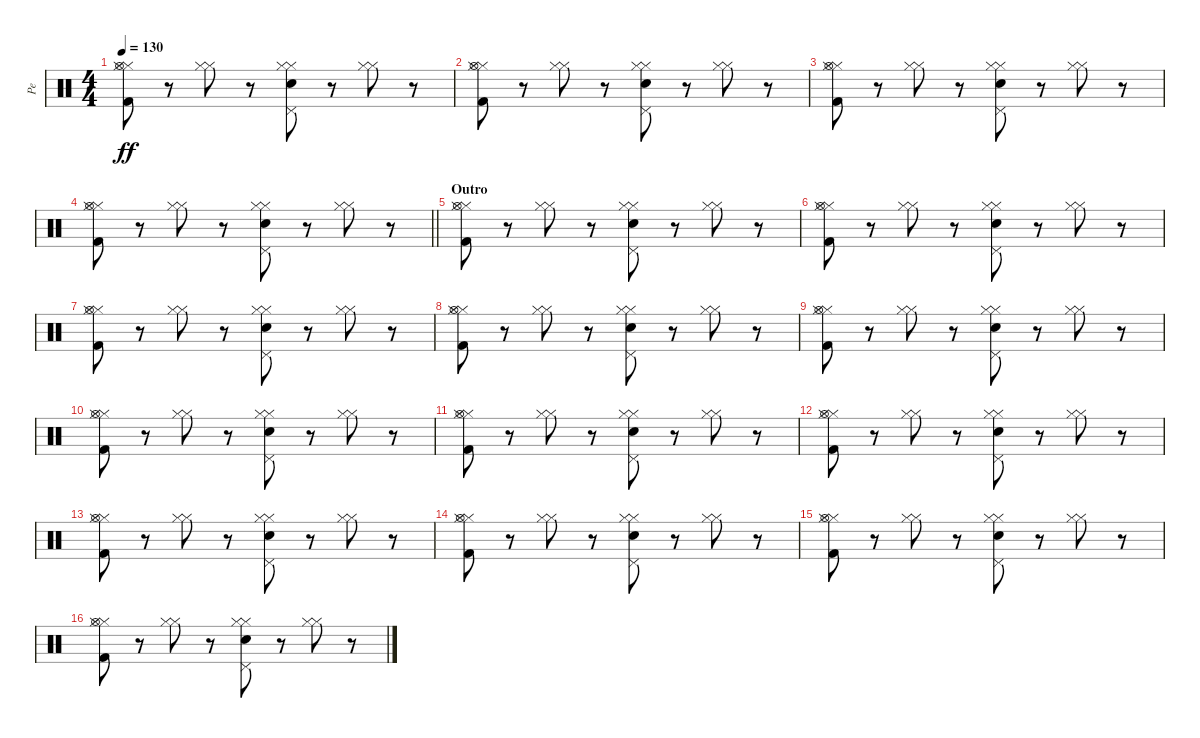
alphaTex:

\track ("Pe" "Pe") {instrument percussion}
\staff {score}
\articulation defaults
\ts (4 4)
\tempo 130
\clef neutral
\ks c
("Hi-Hat (closed)" "Hi-Hat (closed)" "Hi-Hat (open)" "Kick (hit) 2").8{dy ff} r.8 ("Hi-Hat (closed)" "Hi-Hat (closed)").8 r.8 ("Hi-Hat (closed)" "Hi-Hat (closed)" "Pedal Hi-Hat (hit)" "Electric Snare (hit)").8 r.8 ("Hi-Hat (closed)" "Hi-Hat (closed)").8 r.8 |
("Hi-Hat (closed)" "Hi-Hat (closed)" "Hi-Hat (open)" "Kick (hit) 2").8 r.8 ("Hi-Hat (closed)" "Hi-Hat (closed)").8 r.8 ("Hi-Hat (closed)" "Hi-Hat (closed)" "Pedal Hi-Hat (hit)" "Electric Snare (hit)").8 r.8 ("Hi-Hat (closed)" "Hi-Hat (closed)").8 r.8 |
("Hi-Hat (closed)" "Hi-Hat (closed)" "Hi-Hat (open)" "Kick (hit) 2").8 r.8 ("Hi-Hat (closed)" "Hi-Hat (closed)").8 r.8 ("Hi-Hat (closed)" "Hi-Hat (closed)" "Pedal Hi-Hat (hit)" "Electric Snare (hit)").8 r.8 ("Hi-Hat (closed)" "Hi-Hat (closed)").8 r.8 |
\barLineRight lightlight
("Hi-Hat (closed)" "Hi-Hat (closed)" "Hi-Hat (open)" "Kick (hit) 2").8 r.8 ("Hi-Hat (closed)" "Hi-Hat (closed)").8 r.8 ("Hi-Hat (closed)" "Hi-Hat (closed)" "Pedal Hi-Hat (hit)" "Electric Snare (hit)").8 r.8 ("Hi-Hat (closed)" "Hi-Hat (closed)").8 r.8 |
\section ("" "Outro")
("Hi-Hat (closed)" "Hi-Hat (closed)" "Hi-Hat (open)" "Kick (hit) 2").8 r.8 ("Hi-Hat (closed)" "Hi-Hat (closed)").8 r.8 ("Hi-Hat (closed)" "Hi-Hat (closed)" "Pedal Hi-Hat (hit)" "Electric Snare (hit)").8 r.8 ("Hi-Hat (closed)" "Hi-Hat (closed)").8 r.8 |
("Hi-Hat (closed)" "Hi-Hat (closed)" "Hi-Hat (open)" "Kick (hit) 2").8 r.8 ("Hi-Hat (closed)" "Hi-Hat (closed)").8 r.8 ("Hi-Hat (closed)" "Hi-Hat (closed)" "Pedal Hi-Hat (hit)" "Electric Snare (hit)").8 r.8 ("Hi-Hat (closed)" "Hi-Hat (closed)").8 r.8 |
("Hi-Hat (closed)" "Hi-Hat (closed)" "Hi-Hat (open)" "Kick (hit) 2").8 r.8 ("Hi-Hat (closed)" "Hi-Hat (closed)").8 r.8 ("Hi-Hat (closed)" "Hi-Hat (closed)" "Pedal Hi-Hat (hit)" "Electric Snare (hit)").8 r.8 ("Hi-Hat (closed)" "Hi-Hat (closed)").8 r.8 |
("Hi-Hat (closed)" "Hi-Hat (closed)" "Hi-Hat (open)" "Kick (hit) 2").8 r.8 ("Hi-Hat (closed)" "Hi-Hat (closed)").8 r.8 ("Hi-Hat (closed)" "Hi-Hat (closed)" "Pedal Hi-Hat (hit)" "Electric Snare (hit)").8 r.8 ("Hi-Hat (closed)" "Hi-Hat (closed)").8 r.8 |
("Hi-Hat (closed)" "Hi-Hat (closed)" "Hi-Hat (open)" "Kick (hit) 2").8 r.8 ("Hi-Hat (closed)" "Hi-Hat (closed)").8 r.8 ("Hi-Hat (closed)" "Hi-Hat (closed)" "Pedal Hi-Hat (hit)" "Electric Snare (hit)").8 r.8 ("Hi-Hat (closed)" "Hi-Hat (closed)").8 r.8 |
("Hi-Hat (closed)" "Hi-Hat (closed)" "Hi-Hat (open)" "Kick (hit) 2").8 r.8 ("Hi-Hat (closed)" "Hi-Hat (closed)").8 r.8 ("Hi-Hat (closed)" "Hi-Hat (closed)" "Pedal Hi-Hat (hit)" "Electric Snare (hit)").8 r.8 ("Hi-Hat (closed)" "Hi-Hat (closed)").8 r.8 |
("Hi-Hat (closed)" "Hi-Hat (closed)" "Hi-Hat (open)" "Kick (hit) 2").8 r.8 ("Hi-Hat (closed)" "Hi-Hat (closed)").8 r.8 ("Hi-Hat (closed)" "Hi-Hat (closed)" "Pedal Hi-Hat (hit)" "Electric Snare (hit)").8 r.8 ("Hi-Hat (closed)" "Hi-Hat (closed)").8 r.8 |
("Hi-Hat (closed)" "Hi-Hat (closed)" "Hi-Hat (open)" "Kick (hit) 2").8 r.8 ("Hi-Hat (closed)" "Hi-Hat (closed)").8 r.8 ("Hi-Hat (closed)" "Hi-Hat (closed)" "Pedal Hi-Hat (hit)" "Electric Snare (hit)").8 r.8 ("Hi-Hat (closed)" "Hi-Hat (closed)").8 r.8 |
("Hi-Hat (closed)" "Hi-Hat (closed)" "Hi-Hat (open)" "Kick (hit) 2").8 r.8 ("Hi-Hat (closed)" "Hi-Hat (closed)").8 r.8 ("Hi-Hat (closed)" "Hi-Hat (closed)" "Pedal Hi-Hat (hit)" "Electric Snare (hit)").8 r.8 ("Hi-Hat (closed)" "Hi-Hat (closed)").8 r.8 |
("Hi-Hat (closed)" "Hi-Hat (closed)" "Hi-Hat (open)" "Kick (hit) 2").8 r.8 ("Hi-Hat (closed)" "Hi-Hat (closed)").8 r.8 ("Hi-Hat (closed)" "Hi-Hat (closed)" "Pedal Hi-Hat (hit)" "Electric Snare (hit)").8 r.8 ("Hi-Hat (closed)" "Hi-Hat (closed)").8 r.8 |
("Hi-Hat (closed)" "Hi-Hat (closed)" "Hi-Hat (open)" "Kick (hit) 2").8 r.8 ("Hi-Hat (closed)" "Hi-Hat (closed)").8 r.8 ("Hi-Hat (closed)" "Hi-Hat (closed)" "Pedal Hi-Hat (hit)" "Electric Snare (hit)").8 r.8 ("Hi-Hat (closed)" "Hi-Hat (closed)").8 r.8 |
("Hi-Hat (closed)" "Hi-Hat (closed)" "Hi-Hat (open)" "Kick (hit) 2").8 r.8 ("Hi-Hat (closed)" "Hi-Hat (closed)").8 r.8 ("Hi-Hat (closed)" "Hi-Hat (closed)" "Pedal Hi-Hat (hit)" "Electric Snare (hit)").8 r.8 ("Hi-Hat (closed)" "Hi-Hat (closed)").8 r.8
